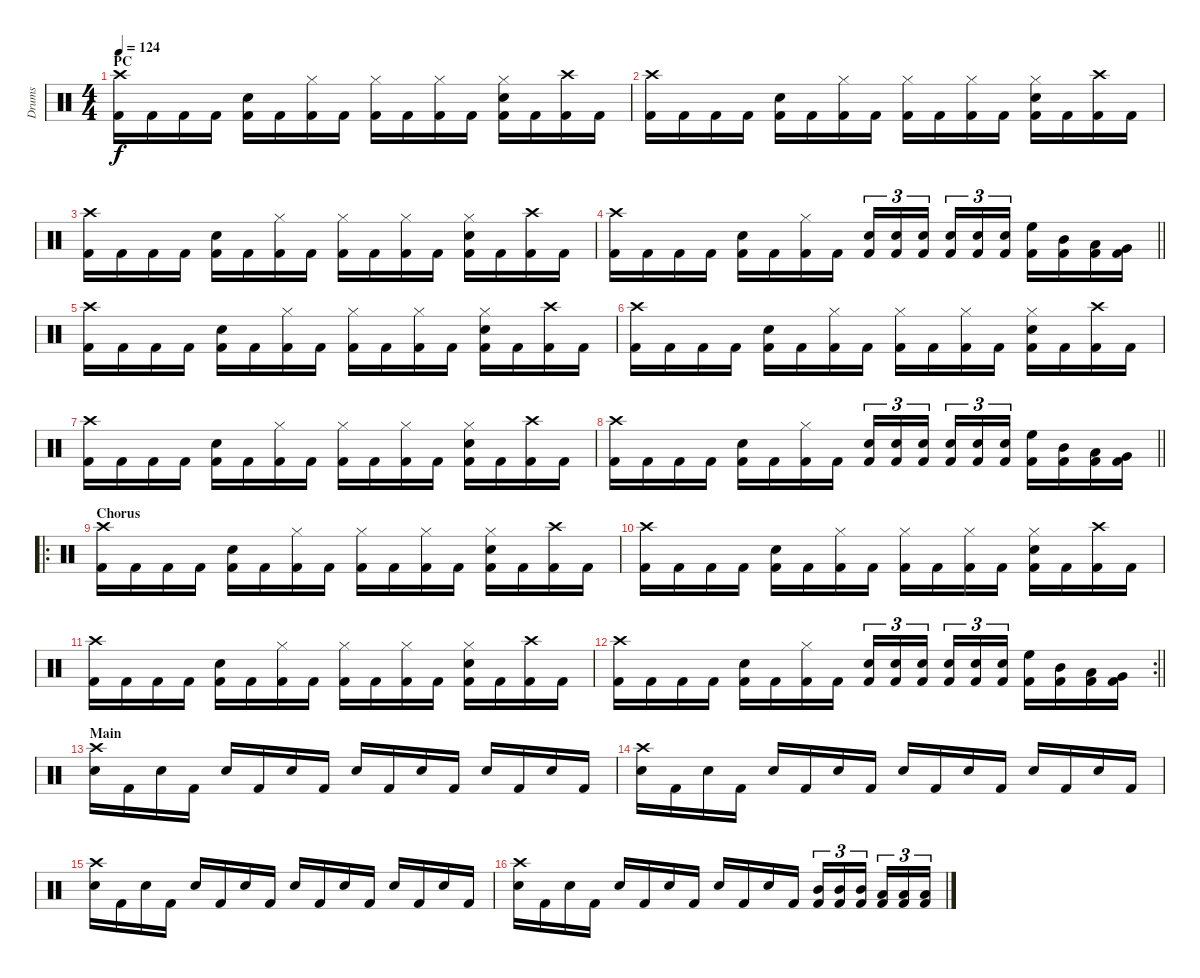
\track ("Drums" "Drums") {instrument percussion}
\staff {score}
\articulation defaults
\ts (4 4)
\section ("" "PC")
\tempo 124
\clef neutral
\ks c
("Crash high (hit)" "Kick (hit) 2").16{dy f} "Kick (hit) 2".16 "Kick (hit) 2".16 "Kick (hit) 2".16 ("Electric Snare (hit)" "Kick (hit) 2").16 "Kick (hit) 2".16 ("Hi-Hat (closed)" "Kick (hit) 2").16 "Kick (hit) 2".16 ("Hi-Hat (closed)" "Kick (hit) 2").16 "Kick (hit) 2".16 ("Hi-Hat (closed)" "Kick (hit) 2").16 "Kick (hit) 2".16 ("Hi-Hat (closed)" "Electric Snare (hit)" "Kick (hit) 2").16 "Kick (hit) 2".16 ("Crash high (hit)" "Kick (hit) 2").16 "Kick (hit) 2".16 |
("Crash high (hit)" "Kick (hit) 2").16 "Kick (hit) 2".16 "Kick (hit) 2".16 "Kick (hit) 2".16 ("Electric Snare (hit)" "Kick (hit) 2").16 "Kick (hit) 2".16 ("Hi-Hat (closed)" "Kick (hit) 2").16 "Kick (hit) 2".16 ("Hi-Hat (closed)" "Kick (hit) 2").16 "Kick (hit) 2".16 ("Hi-Hat (closed)" "Kick (hit) 2").16 "Kick (hit) 2".16 ("Hi-Hat (closed)" "Electric Snare (hit)" "Kick (hit) 2").16 "Kick (hit) 2".16 ("Crash high (hit)" "Kick (hit) 2").16 "Kick (hit) 2".16 |
("Crash high (hit)" "Kick (hit) 2").16 "Kick (hit) 2".16 "Kick (hit) 2".16 "Kick (hit) 2".16 ("Electric Snare (hit)" "Kick (hit) 2").16 "Kick (hit) 2".16 ("Hi-Hat (closed)" "Kick (hit) 2").16 "Kick (hit) 2".16 ("Hi-Hat (closed)" "Kick (hit) 2").16 "Kick (hit) 2".16 ("Hi-Hat (closed)" "Kick (hit) 2").16 "Kick (hit) 2".16 ("Hi-Hat (closed)" "Electric Snare (hit)" "Kick (hit) 2").16 "Kick (hit) 2".16 ("Crash high (hit)" "Kick (hit) 2").16 "Kick (hit) 2".16 |
\barLineRight lightlight
("Crash high (hit)" "Kick (hit) 2").16 "Kick (hit) 2".16 "Kick (hit) 2".16 "Kick (hit) 2".16 ("Electric Snare (hit)" "Kick (hit) 2").16 "Kick (hit) 2".16 ("Hi-Hat (closed)" "Kick (hit) 2").16 "Kick (hit) 2".16 ("Electric Snare (hit)" "Kick (hit) 2").16{tu (3 2)} ("Electric Snare (hit)" "Kick (hit) 2").16{tu (3 2)} ("Electric Snare (hit)" "Kick (hit) 2").16{tu (3 2) beam splitsecondary} ("Electric Snare (hit)" "Kick (hit) 2").16{tu (3 2)} ("Electric Snare (hit)" "Kick (hit) 2").16{tu (3 2)} ("Electric Snare (hit)" "Kick (hit) 2").16{tu (3 2)} ("High Floor Tom (hit)" "Kick (hit) 2").16 ("Mid Tom (hit)" "Kick (hit) 2").16 ("Low Tom (hit)" "Kick (hit) 2").16 ("Very Low Tom (hit)" "Kick (hit) 2").16 |
("Crash high (hit)" "Kick (hit) 2").16 "Kick (hit) 2".16 "Kick (hit) 2".16 "Kick (hit) 2".16 ("Electric Snare (hit)" "Kick (hit) 2").16 "Kick (hit) 2".16 ("Hi-Hat (closed)" "Kick (hit) 2").16 "Kick (hit) 2".16 ("Hi-Hat (closed)" "Kick (hit) 2").16 "Kick (hit) 2".16 ("Hi-Hat (closed)" "Kick (hit) 2").16 "Kick (hit) 2".16 ("Hi-Hat (closed)" "Electric Snare (hit)" "Kick (hit) 2").16 "Kick (hit) 2".16 ("Crash high (hit)" "Kick (hit) 2").16 "Kick (hit) 2".16 |
("Crash high (hit)" "Kick (hit) 2").16 "Kick (hit) 2".16 "Kick (hit) 2".16 "Kick (hit) 2".16 ("Electric Snare (hit)" "Kick (hit) 2").16 "Kick (hit) 2".16 ("Hi-Hat (closed)" "Kick (hit) 2").16 "Kick (hit) 2".16 ("Hi-Hat (closed)" "Kick (hit) 2").16 "Kick (hit) 2".16 ("Hi-Hat (closed)" "Kick (hit) 2").16 "Kick (hit) 2".16 ("Hi-Hat (closed)" "Electric Snare (hit)" "Kick (hit) 2").16 "Kick (hit) 2".16 ("Crash high (hit)" "Kick (hit) 2").16 "Kick (hit) 2".16 |
("Crash high (hit)" "Kick (hit) 2").16 "Kick (hit) 2".16 "Kick (hit) 2".16 "Kick (hit) 2".16 ("Electric Snare (hit)" "Kick (hit) 2").16 "Kick (hit) 2".16 ("Hi-Hat (closed)" "Kick (hit) 2").16 "Kick (hit) 2".16 ("Hi-Hat (closed)" "Kick (hit) 2").16 "Kick (hit) 2".16 ("Hi-Hat (closed)" "Kick (hit) 2").16 "Kick (hit) 2".16 ("Hi-Hat (closed)" "Electric Snare (hit)" "Kick (hit) 2").16 "Kick (hit) 2".16 ("Crash high (hit)" "Kick (hit) 2").16 "Kick (hit) 2".16 |
\barLineRight lightlight
("Crash high (hit)" "Kick (hit) 2").16 "Kick (hit) 2".16 "Kick (hit) 2".16 "Kick (hit) 2".16 ("Electric Snare (hit)" "Kick (hit) 2").16 "Kick (hit) 2".16 ("Hi-Hat (closed)" "Kick (hit) 2").16 "Kick (hit) 2".16 ("Electric Snare (hit)" "Kick (hit) 2").16{tu (3 2)} ("Electric Snare (hit)" "Kick (hit) 2").16{tu (3 2)} ("Electric Snare (hit)" "Kick (hit) 2").16{tu (3 2) beam splitsecondary} ("Electric Snare (hit)" "Kick (hit) 2").16{tu (3 2)} ("Electric Snare (hit)" "Kick (hit) 2").16{tu (3 2)} ("Electric Snare (hit)" "Kick (hit) 2").16{tu (3 2)} ("High Floor Tom (hit)" "Kick (hit) 2").16 ("Mid Tom (hit)" "Kick (hit) 2").16 ("Low Tom (hit)" "Kick (hit) 2").16 ("Very Low Tom (hit)" "Kick (hit) 2").16 |
\ro
\section ("" "Chorus")
("Crash high (hit)" "Kick (hit) 2").16 "Kick (hit) 2".16 "Kick (hit) 2".16 "Kick (hit) 2".16 ("Electric Snare (hit)" "Kick (hit) 2").16 "Kick (hit) 2".16 ("Hi-Hat (closed)" "Kick (hit) 2").16 "Kick (hit) 2".16 ("Hi-Hat (closed)" "Kick (hit) 2").16 "Kick (hit) 2".16 ("Hi-Hat (closed)" "Kick (hit) 2").16 "Kick (hit) 2".16 ("Hi-Hat (closed)" "Electric Snare (hit)" "Kick (hit) 2").16 "Kick (hit) 2".16 ("Crash high (hit)" "Kick (hit) 2").16 "Kick (hit) 2".16 |
("Crash high (hit)" "Kick (hit) 2").16 "Kick (hit) 2".16 "Kick (hit) 2".16 "Kick (hit) 2".16 ("Electric Snare (hit)" "Kick (hit) 2").16 "Kick (hit) 2".16 ("Hi-Hat (closed)" "Kick (hit) 2").16 "Kick (hit) 2".16 ("Hi-Hat (closed)" "Kick (hit) 2").16 "Kick (hit) 2".16 ("Hi-Hat (closed)" "Kick (hit) 2").16 "Kick (hit) 2".16 ("Hi-Hat (closed)" "Electric Snare (hit)" "Kick (hit) 2").16 "Kick (hit) 2".16 ("Crash high (hit)" "Kick (hit) 2").16 "Kick (hit) 2".16 |
("Crash high (hit)" "Kick (hit) 2").16 "Kick (hit) 2".16 "Kick (hit) 2".16 "Kick (hit) 2".16 ("Electric Snare (hit)" "Kick (hit) 2").16 "Kick (hit) 2".16 ("Hi-Hat (closed)" "Kick (hit) 2").16 "Kick (hit) 2".16 ("Hi-Hat (closed)" "Kick (hit) 2").16 "Kick (hit) 2".16 ("Hi-Hat (closed)" "Kick (hit) 2").16 "Kick (hit) 2".16 ("Hi-Hat (closed)" "Electric Snare (hit)" "Kick (hit) 2").16 "Kick (hit) 2".16 ("Crash high (hit)" "Kick (hit) 2").16 "Kick (hit) 2".16 |
\rc 2
\barLineRight lightlight
("Crash high (hit)" "Kick (hit) 2").16 "Kick (hit) 2".16 "Kick (hit) 2".16 "Kick (hit) 2".16 ("Electric Snare (hit)" "Kick (hit) 2").16 "Kick (hit) 2".16 ("Hi-Hat (closed)" "Kick (hit) 2").16 "Kick (hit) 2".16 ("Electric Snare (hit)" "Kick (hit) 2").16{tu (3 2)} ("Electric Snare (hit)" "Kick (hit) 2").16{tu (3 2)} ("Electric Snare (hit)" "Kick (hit) 2").16{tu (3 2) beam splitsecondary} ("Electric Snare (hit)" "Kick (hit) 2").16{tu (3 2)} ("Electric Snare (hit)" "Kick (hit) 2").16{tu (3 2)} ("Electric Snare (hit)" "Kick (hit) 2").16{tu (3 2)} ("High Floor Tom (hit)" "Kick (hit) 2").16 ("Mid Tom (hit)" "Kick (hit) 2").16 ("Low Tom (hit)" "Kick (hit) 2").16 ("Very Low Tom (hit)" "Kick (hit) 2").16 |
\section ("" "Main")
("Crash high (hit)" "Electric Snare (hit)").16 "Kick (hit) 2".16 "Electric Snare (hit)".16 "Kick (hit) 2".16 "Electric Snare (hit)".16 "Kick (hit) 2".16 "Electric Snare (hit)".16 "Kick (hit) 2".16 "Electric Snare (hit)".16 "Kick (hit) 2".16 "Electric Snare (hit)".16 "Kick (hit) 2".16 "Electric Snare (hit)".16 "Kick (hit) 2".16 "Electric Snare (hit)".16 "Kick (hit) 2".16 |
("Crash high (hit)" "Electric Snare (hit)").16 "Kick (hit) 2".16 "Electric Snare (hit)".16 "Kick (hit) 2".16 "Electric Snare (hit)".16 "Kick (hit) 2".16 "Electric Snare (hit)".16 "Kick (hit) 2".16 "Electric Snare (hit)".16 "Kick (hit) 2".16 "Electric Snare (hit)".16 "Kick (hit) 2".16 "Electric Snare (hit)".16 "Kick (hit) 2".16 "Electric Snare (hit)".16 "Kick (hit) 2".16 |
("Crash high (hit)" "Electric Snare (hit)").16 "Kick (hit) 2".16 "Electric Snare (hit)".16 "Kick (hit) 2".16 "Electric Snare (hit)".16 "Kick (hit) 2".16 "Electric Snare (hit)".16 "Kick (hit) 2".16 "Electric Snare (hit)".16 "Kick (hit) 2".16 "Electric Snare (hit)".16 "Kick (hit) 2".16 "Electric Snare (hit)".16 "Kick (hit) 2".16 "Electric Snare (hit)".16 "Kick (hit) 2".16 |
("Crash high (hit)" "Electric Snare (hit)").16 "Kick (hit) 2".16 "Electric Snare (hit)".16 "Kick (hit) 2".16 "Electric Snare (hit)".16 "Kick (hit) 2".16 "Electric Snare (hit)".16 "Kick (hit) 2".16 "Electric Snare (hit)".16 "Kick (hit) 2".16 "Electric Snare (hit)".16 "Kick (hit) 2".16 ("Mid Tom (hit)" "Kick (hit) 2").16{tu (3 2)} ("Mid Tom (hit)" "Kick (hit) 2").16{tu (3 2)} ("Mid Tom (hit)" "Kick (hit) 2").16{tu (3 2) beam splitsecondary} ("Low Tom (hit)" "Kick (hit) 2").16{tu (3 2)} ("Low Tom (hit)" "Kick (hit) 2").16{tu (3 2)} ("Low Tom (hit)" "Kick (hit) 2").16{tu (3 2)}
